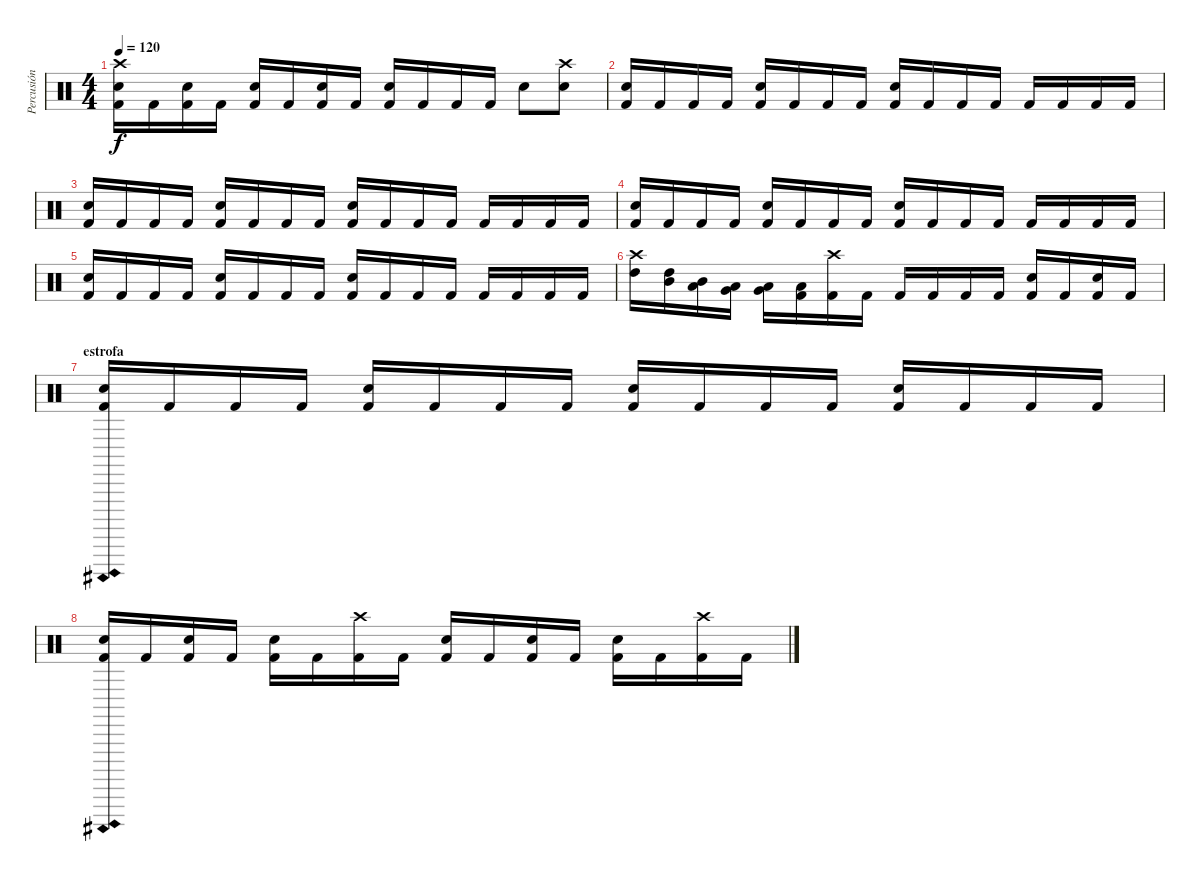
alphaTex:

\track ("Percusión" "Percusión") {instrument percussion}
\staff {score}
\articulation defaults
\ts (4 4)
\tempo 120
\clef neutral
\ks c
("Crash high (hit)" "Kick (hit) 2" "Electric Snare (hit)").16{dy f} "Kick (hit) 2".16 ("Kick (hit) 2" "Electric Snare (hit)").16 "Kick (hit) 2".16 ("Kick (hit) 2" "Electric Snare (hit)").16 "Kick (hit) 2".16 ("Kick (hit) 2" "Electric Snare (hit)").16 "Kick (hit) 2".16 ("Kick (hit) 2" "Electric Snare (hit)").16 "Kick (hit) 2".16 "Kick (hit) 2".16 "Kick (hit) 2".16 "Electric Snare (hit)".8 ("Crash high (hit)" "Electric Snare (hit)").8 |
("Kick (hit) 2" "Electric Snare (hit)").16 "Kick (hit) 2".16 "Kick (hit) 2".16 "Kick (hit) 2".16 ("Kick (hit) 2" "Electric Snare (hit)").16 "Kick (hit) 2".16 "Kick (hit) 2".16 "Kick (hit) 2".16 ("Kick (hit) 2" "Electric Snare (hit)").16 "Kick (hit) 2".16 "Kick (hit) 2".16 "Kick (hit) 2".16 "Kick (hit) 2".16 "Kick (hit) 2".16 "Kick (hit) 2".16 "Kick (hit) 2".16 |
("Kick (hit) 2" "Electric Snare (hit)").16 "Kick (hit) 2".16 "Kick (hit) 2".16 "Kick (hit) 2".16 ("Kick (hit) 2" "Electric Snare (hit)").16 "Kick (hit) 2".16 "Kick (hit) 2".16 "Kick (hit) 2".16 ("Kick (hit) 2" "Electric Snare (hit)").16 "Kick (hit) 2".16 "Kick (hit) 2".16 "Kick (hit) 2".16 "Kick (hit) 2".16 "Kick (hit) 2".16 "Kick (hit) 2".16 "Kick (hit) 2".16 |
("Kick (hit) 2" "Electric Snare (hit)").16 "Kick (hit) 2".16 "Kick (hit) 2".16 "Kick (hit) 2".16 ("Kick (hit) 2" "Electric Snare (hit)").16 "Kick (hit) 2".16 "Kick (hit) 2".16 "Kick (hit) 2".16 ("Kick (hit) 2" "Electric Snare (hit)").16 "Kick (hit) 2".16 "Kick (hit) 2".16 "Kick (hit) 2".16 "Kick (hit) 2".16 "Kick (hit) 2".16 "Kick (hit) 2".16 "Kick (hit) 2".16 |
("Kick (hit) 2" "Electric Snare (hit)").16 "Kick (hit) 2".16 "Kick (hit) 2".16 "Kick (hit) 2".16 ("Kick (hit) 2" "Electric Snare (hit)").16 "Kick (hit) 2".16 "Kick (hit) 2".16 "Kick (hit) 2".16 ("Kick (hit) 2" "Electric Snare (hit)").16 "Kick (hit) 2".16 "Kick (hit) 2".16 "Kick (hit) 2".16 "Kick (hit) 2".16 "Kick (hit) 2".16 "Kick (hit) 2".16 "Kick (hit) 2".16 |
("Crash high (hit)" "High Tom (hit)").16 ("Mid Tom (hit)" "High Tom (hit)").16 ("Low Tom (hit)" "Mid Tom (hit)").16 ("Very Low Tom (hit)" "Low Tom (hit)").16 ("Low Floor Tom (hit)" "Very Low Tom (hit)").16 ("Kick (hit) 2" "Low Floor Tom (hit)").16 ("Crash high (hit)" "Kick (hit) 2").16 "Kick (hit) 2".16 "Kick (hit) 2".16 "Kick (hit) 2".16 "Kick (hit) 2".16 "Kick (hit) 2".16 ("Kick (hit) 2" "Electric Snare (hit)").16 "Kick (hit) 2".16 ("Kick (hit) 2" "Electric Snare (hit)").16 "Kick (hit) 2".16 |
\section ("" "estrofa")
("Kick (hit) 2"{ah 12} "Electric Snare (hit)"{ah 12}).16 "Kick (hit) 2".16 "Kick (hit) 2".16 "Kick (hit) 2".16 ("Kick (hit) 2" "Electric Snare (hit)").16 "Kick (hit) 2".16 "Kick (hit) 2".16 "Kick (hit) 2".16 ("Kick (hit) 2" "Electric Snare (hit)").16 "Kick (hit) 2".16 "Kick (hit) 2".16 "Kick (hit) 2".16 ("Kick (hit) 2" "Electric Snare (hit)").16 "Kick (hit) 2".16 "Kick (hit) 2".16 "Kick (hit) 2".16 |
("Kick (hit) 2"{ah 12} "Electric Snare (hit)"{ah 12}).16 "Kick (hit) 2".16 ("Kick (hit) 2" "Electric Snare (hit)").16 "Kick (hit) 2".16 ("Kick (hit) 2" "Electric Snare (hit)").16 "Kick (hit) 2".16 ("Crash high (hit)" "Kick (hit) 2").16 "Kick (hit) 2".16 ("Kick (hit) 2" "Electric Snare (hit)").16 "Kick (hit) 2".16 ("Kick (hit) 2" "Electric Snare (hit)").16 "Kick (hit) 2".16 ("Kick (hit) 2" "Electric Snare (hit)").16 "Kick (hit) 2".16 ("Crash high (hit)" "Kick (hit) 2").16 "Kick (hit) 2".16
